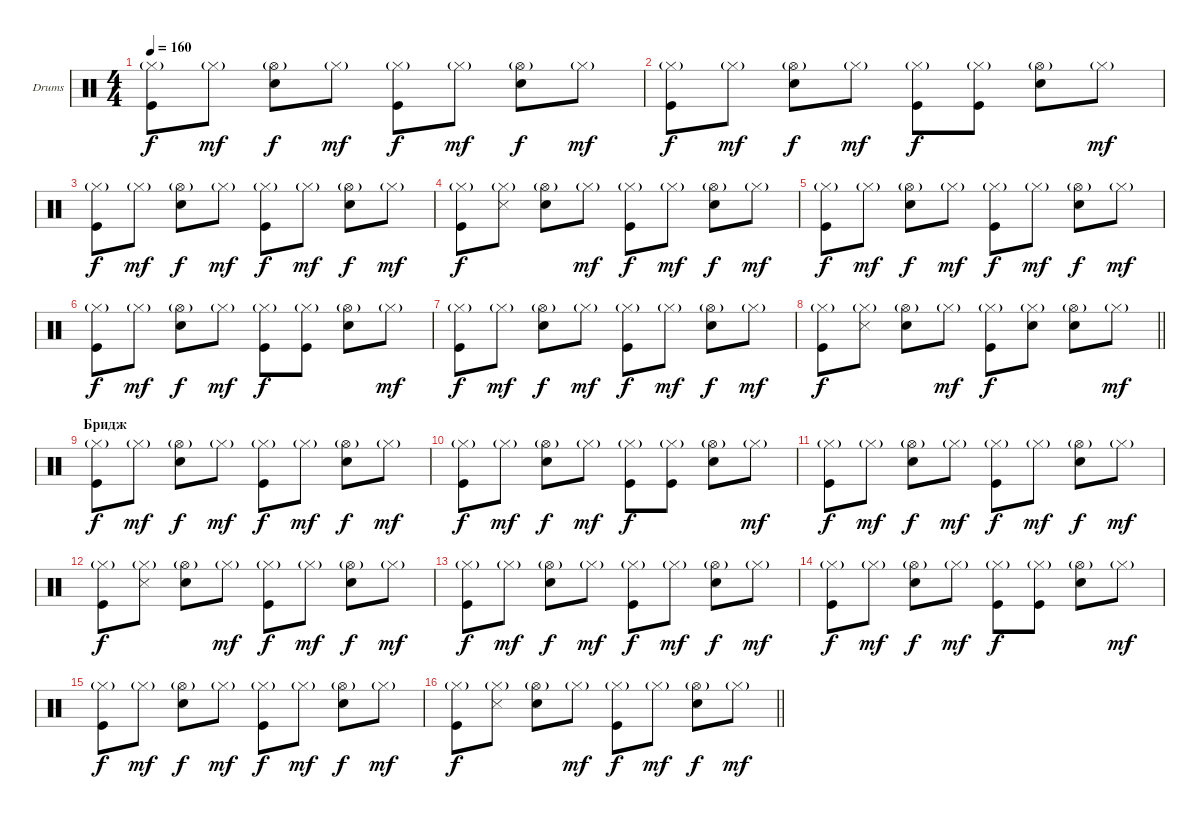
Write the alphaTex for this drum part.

\bracketExtendMode groupsimilarinstruments
\firstSystemTrackNameOrientation horizontal
\otherSystemsTrackNameOrientation horizontal
\track ("Ударные" "Drums") {instrument percussion}
\staff {score}
\articulation defaults
\ts (4 4)
\tempo 160
\clef neutral
\ks c
("Hi-Hat (closed)"{g} "Kick (hit)").8{dy f} "Hi-Hat (closed)"{g}.8{dy mf} ("Hi-Hat (open)"{g} "Snare (hit) 2").8{dy f} "Hi-Hat (closed)"{g}.8{dy mf} ("Hi-Hat (closed)"{g} "Kick (hit)").8{dy f} "Hi-Hat (closed)"{g}.8{dy mf} ("Hi-Hat (open)"{g} "Snare (hit) 2").8{dy f} "Hi-Hat (closed)"{g}.8{dy mf} |
("Hi-Hat (closed)"{g} "Kick (hit)").8{dy f} "Hi-Hat (closed)"{g}.8{dy mf} ("Hi-Hat (open)"{g} "Snare (hit) 2").8{dy f} "Hi-Hat (closed)"{g}.8{dy mf} ("Hi-Hat (closed)"{g} "Kick (hit)").8{dy f} ("Hi-Hat (closed)"{g} "Kick (hit)").8 ("Hi-Hat (open)"{g} "Snare (hit) 2").8 "Hi-Hat (closed)"{g}.8{dy mf} |
("Hi-Hat (closed)"{g} "Kick (hit)").8{dy f} "Hi-Hat (closed)"{g}.8{dy mf} ("Hi-Hat (open)"{g} "Snare (hit) 2").8{dy f} "Hi-Hat (closed)"{g}.8{dy mf} ("Hi-Hat (closed)"{g} "Kick (hit)").8{dy f} "Hi-Hat (closed)"{g}.8{dy mf} ("Hi-Hat (open)"{g} "Snare (hit) 2").8{dy f} "Hi-Hat (closed)"{g}.8{dy mf} |
("Hi-Hat (closed)"{g} "Kick (hit)").8{dy f} ("Hi-Hat (closed)"{g} "Snare (side stick) 3").8 ("Hi-Hat (open)"{g} "Snare (hit) 2").8 "Hi-Hat (closed)"{g}.8{dy mf} ("Hi-Hat (closed)"{g} "Kick (hit)").8{dy f} "Hi-Hat (closed)"{g}.8{dy mf} ("Hi-Hat (open)"{g} "Snare (hit) 2").8{dy f} "Hi-Hat (closed)"{g}.8{dy mf} |
("Hi-Hat (closed)"{g} "Kick (hit)").8{dy f} "Hi-Hat (closed)"{g}.8{dy mf} ("Hi-Hat (open)"{g} "Snare (hit) 2").8{dy f} "Hi-Hat (closed)"{g}.8{dy mf} ("Hi-Hat (closed)"{g} "Kick (hit)").8{dy f} "Hi-Hat (closed)"{g}.8{dy mf} ("Hi-Hat (open)"{g} "Snare (hit) 2").8{dy f} "Hi-Hat (closed)"{g}.8{dy mf} |
("Hi-Hat (closed)"{g} "Kick (hit)").8{dy f} "Hi-Hat (closed)"{g}.8{dy mf} ("Hi-Hat (open)"{g} "Snare (hit) 2").8{dy f} "Hi-Hat (closed)"{g}.8{dy mf} ("Hi-Hat (closed)"{g} "Kick (hit)").8{dy f} ("Hi-Hat (closed)"{g} "Kick (hit)").8 ("Hi-Hat (open)"{g} "Snare (hit) 2").8 "Hi-Hat (closed)"{g}.8{dy mf} |
("Hi-Hat (closed)"{g} "Kick (hit)").8{dy f} "Hi-Hat (closed)"{g}.8{dy mf} ("Hi-Hat (open)"{g} "Snare (hit) 2").8{dy f} "Hi-Hat (closed)"{g}.8{dy mf} ("Hi-Hat (closed)"{g} "Kick (hit)").8{dy f} "Hi-Hat (closed)"{g}.8{dy mf} ("Hi-Hat (open)"{g} "Snare (hit) 2").8{dy f} "Hi-Hat (closed)"{g}.8{dy mf} |
\barLineRight lightlight
("Hi-Hat (closed)"{g} "Kick (hit)").8{dy f} ("Hi-Hat (closed)"{g} "Snare (side stick) 3").8 ("Hi-Hat (open)"{g} "Snare (hit) 2").8 "Hi-Hat (closed)"{g}.8{dy mf} ("Hi-Hat (closed)"{g} "Kick (hit)").8{dy f} ("Hi-Hat (closed)"{g} "Snare (hit) 2").8 ("Hi-Hat (open)"{g} "Snare (hit) 2").8 "Hi-Hat (closed)"{g}.8{dy mf} |
\section ("" "Бридж")
("Hi-Hat (closed)"{g} "Kick (hit)").8{dy f} "Hi-Hat (closed)"{g}.8{dy mf} ("Hi-Hat (open)"{g} "Snare (hit) 2").8{dy f} "Hi-Hat (closed)"{g}.8{dy mf} ("Hi-Hat (closed)"{g} "Kick (hit)").8{dy f} "Hi-Hat (closed)"{g}.8{dy mf} ("Hi-Hat (open)"{g} "Snare (hit) 2").8{dy f} "Hi-Hat (closed)"{g}.8{dy mf} |
("Hi-Hat (closed)"{g} "Kick (hit)").8{dy f} "Hi-Hat (closed)"{g}.8{dy mf} ("Hi-Hat (open)"{g} "Snare (hit) 2").8{dy f} "Hi-Hat (closed)"{g}.8{dy mf} ("Hi-Hat (closed)"{g} "Kick (hit)").8{dy f} ("Hi-Hat (closed)"{g} "Kick (hit)").8 ("Hi-Hat (open)"{g} "Snare (hit) 2").8 "Hi-Hat (closed)"{g}.8{dy mf} |
("Hi-Hat (closed)"{g} "Kick (hit)").8{dy f} "Hi-Hat (closed)"{g}.8{dy mf} ("Hi-Hat (open)"{g} "Snare (hit) 2").8{dy f} "Hi-Hat (closed)"{g}.8{dy mf} ("Hi-Hat (closed)"{g} "Kick (hit)").8{dy f} "Hi-Hat (closed)"{g}.8{dy mf} ("Hi-Hat (open)"{g} "Snare (hit) 2").8{dy f} "Hi-Hat (closed)"{g}.8{dy mf} |
("Hi-Hat (closed)"{g} "Kick (hit)").8{dy f} ("Hi-Hat (closed)"{g} "Snare (side stick) 3").8 ("Hi-Hat (open)"{g} "Snare (hit) 2").8 "Hi-Hat (closed)"{g}.8{dy mf} ("Hi-Hat (closed)"{g} "Kick (hit)").8{dy f} "Hi-Hat (closed)"{g}.8{dy mf} ("Hi-Hat (open)"{g} "Snare (hit) 2").8{dy f} "Hi-Hat (closed)"{g}.8{dy mf} |
("Hi-Hat (closed)"{g} "Kick (hit)").8{dy f} "Hi-Hat (closed)"{g}.8{dy mf} ("Hi-Hat (open)"{g} "Snare (hit) 2").8{dy f} "Hi-Hat (closed)"{g}.8{dy mf} ("Hi-Hat (closed)"{g} "Kick (hit)").8{dy f} "Hi-Hat (closed)"{g}.8{dy mf} ("Hi-Hat (open)"{g} "Snare (hit) 2").8{dy f} "Hi-Hat (closed)"{g}.8{dy mf} |
("Hi-Hat (closed)"{g} "Kick (hit)").8{dy f} "Hi-Hat (closed)"{g}.8{dy mf} ("Hi-Hat (open)"{g} "Snare (hit) 2").8{dy f} "Hi-Hat (closed)"{g}.8{dy mf} ("Hi-Hat (closed)"{g} "Kick (hit)").8{dy f} ("Hi-Hat (closed)"{g} "Kick (hit)").8 ("Hi-Hat (open)"{g} "Snare (hit) 2").8 "Hi-Hat (closed)"{g}.8{dy mf} |
("Hi-Hat (closed)"{g} "Kick (hit)").8{dy f} "Hi-Hat (closed)"{g}.8{dy mf} ("Hi-Hat (open)"{g} "Snare (hit) 2").8{dy f} "Hi-Hat (closed)"{g}.8{dy mf} ("Hi-Hat (closed)"{g} "Kick (hit)").8{dy f} "Hi-Hat (closed)"{g}.8{dy mf} ("Hi-Hat (open)"{g} "Snare (hit) 2").8{dy f} "Hi-Hat (closed)"{g}.8{dy mf} |
\barLineRight lightlight
("Hi-Hat (closed)"{g} "Kick (hit)").8{dy f} ("Hi-Hat (closed)"{g} "Snare (side stick) 3").8 ("Hi-Hat (open)"{g} "Snare (hit) 2").8 "Hi-Hat (closed)"{g}.8{dy mf} ("Hi-Hat (closed)"{g} "Kick (hit)").8{dy f} "Hi-Hat (closed)"{g}.8{dy mf} ("Hi-Hat (open)"{g} "Snare (hit) 2").8{dy f} "Hi-Hat (closed)"{g}.8{dy mf}
